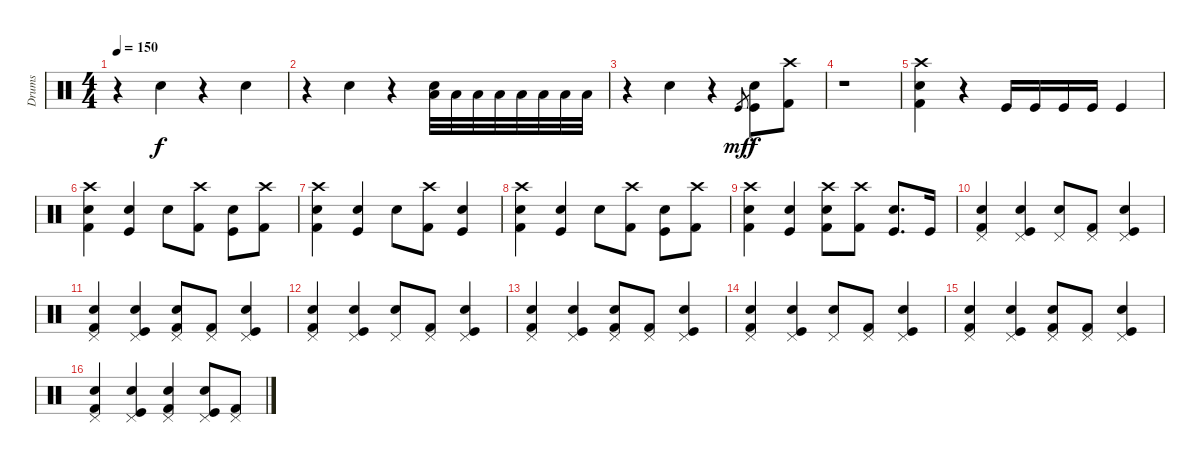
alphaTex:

\track ("Drums" "Drums") {instrument percussion}
\staff {score}
\articulation defaults
\ts (4 4)
\tempo 150
\clef neutral
\ks c
r.4{dy f} "Electric Snare (hit)".4 r.4 "Electric Snare (hit)".4 |
r.4 "Electric Snare (hit)".4 r.4 ("Electric Snare (hit)" "Low Floor Tom (hit)").32 "Low Floor Tom (hit)".32 "Low Floor Tom (hit)".32 "Low Floor Tom (hit)".32 "Low Floor Tom (hit)".32 "Low Floor Tom (hit)".32 "Low Floor Tom (hit)".32 "Low Floor Tom (hit)".32 |
r.4 "Electric Snare (hit)".4 r.4 "Kick (hit)".8{gr dy mf} ("Kick (hit)" "Electric Snare (hit)").8{dy f} ("Kick (hit) 2" "Crash high (hit)").8 |
r.1 |
("Kick (hit) 2" "Electric Snare (hit)" "Crash high (hit)").4 r.4 "Kick (hit)".16 "Kick (hit)".16 "Kick (hit)".16 "Kick (hit)".16 "Kick (hit)".4 |
("Kick (hit) 2" "Electric Snare (hit)" "Crash high (hit)").4 ("Kick (hit)" "Electric Snare (hit)").4 "Electric Snare (hit)".8 ("Kick (hit) 2" "Crash high (hit)").8 ("Kick (hit)" "Electric Snare (hit)").8 ("Kick (hit) 2" "Crash high (hit)").8 |
("Kick (hit) 2" "Electric Snare (hit)" "Crash high (hit)").4 ("Kick (hit)" "Electric Snare (hit)").4 "Electric Snare (hit)".8 ("Kick (hit) 2" "Crash high (hit)").8 ("Kick (hit)" "Electric Snare (hit)").4 |
("Kick (hit) 2" "Electric Snare (hit)" "Crash high (hit)").4 ("Kick (hit)" "Electric Snare (hit)").4 "Electric Snare (hit)".8 ("Kick (hit) 2" "Crash high (hit)").8 ("Kick (hit)" "Electric Snare (hit)").8 ("Kick (hit) 2" "Crash high (hit)").8 |
("Kick (hit) 2" "Electric Snare (hit)" "Crash high (hit)").4 ("Kick (hit)" "Electric Snare (hit)").4 ("Kick (hit) 2" "Electric Snare (hit)" "Crash high (hit)").8 ("Kick (hit) 2" "Crash high (hit)").8 ("Kick (hit)" "Electric Snare (hit)").8{d} "Kick (hit)".16 |
("Kick (hit) 2" "Electric Snare (hit)" "Pedal Hi-Hat (hit)").4 ("Kick (hit)" "Electric Snare (hit)" "Pedal Hi-Hat (hit)").4 ("Electric Snare (hit)" "Pedal Hi-Hat (hit)").8 ("Kick (hit) 2" "Pedal Hi-Hat (hit)").8 ("Kick (hit)" "Electric Snare (hit)" "Pedal Hi-Hat (hit)").4 |
("Kick (hit) 2" "Electric Snare (hit)" "Pedal Hi-Hat (hit)").4 ("Kick (hit)" "Electric Snare (hit)" "Pedal Hi-Hat (hit)").4 ("Kick (hit) 2" "Electric Snare (hit)" "Pedal Hi-Hat (hit)").8 ("Kick (hit) 2" "Pedal Hi-Hat (hit)").8 ("Kick (hit)" "Electric Snare (hit)" "Pedal Hi-Hat (hit)").4 |
("Kick (hit) 2" "Electric Snare (hit)" "Pedal Hi-Hat (hit)").4 ("Kick (hit)" "Electric Snare (hit)" "Pedal Hi-Hat (hit)").4 ("Electric Snare (hit)" "Pedal Hi-Hat (hit)").8 ("Kick (hit) 2" "Pedal Hi-Hat (hit)").8 ("Kick (hit)" "Electric Snare (hit)" "Pedal Hi-Hat (hit)").4 |
("Kick (hit) 2" "Electric Snare (hit)" "Pedal Hi-Hat (hit)").4 ("Kick (hit)" "Electric Snare (hit)" "Pedal Hi-Hat (hit)").4 ("Kick (hit) 2" "Electric Snare (hit)" "Pedal Hi-Hat (hit)").8 ("Kick (hit) 2" "Pedal Hi-Hat (hit)").8 ("Kick (hit)" "Electric Snare (hit)" "Pedal Hi-Hat (hit)").4 |
("Kick (hit) 2" "Electric Snare (hit)" "Pedal Hi-Hat (hit)").4 ("Kick (hit)" "Electric Snare (hit)" "Pedal Hi-Hat (hit)").4 ("Electric Snare (hit)" "Pedal Hi-Hat (hit)").8 ("Kick (hit) 2" "Pedal Hi-Hat (hit)").8 ("Kick (hit)" "Electric Snare (hit)" "Pedal Hi-Hat (hit)").4 |
("Kick (hit) 2" "Electric Snare (hit)" "Pedal Hi-Hat (hit)").4 ("Kick (hit)" "Electric Snare (hit)" "Pedal Hi-Hat (hit)").4 ("Kick (hit) 2" "Electric Snare (hit)" "Pedal Hi-Hat (hit)").8 ("Kick (hit) 2" "Pedal Hi-Hat (hit)").8 ("Kick (hit)" "Electric Snare (hit)" "Pedal Hi-Hat (hit)").4 |
("Kick (hit) 2" "Electric Snare (hit)" "Pedal Hi-Hat (hit)").4 ("Kick (hit)" "Electric Snare (hit)" "Pedal Hi-Hat (hit)").4 ("Kick (hit) 2" "Electric Snare (hit)" "Pedal Hi-Hat (hit)").4 ("Kick (hit)" "Electric Snare (hit)" "Pedal Hi-Hat (hit)").8 ("Kick (hit) 2" "Pedal Hi-Hat (hit)").8
